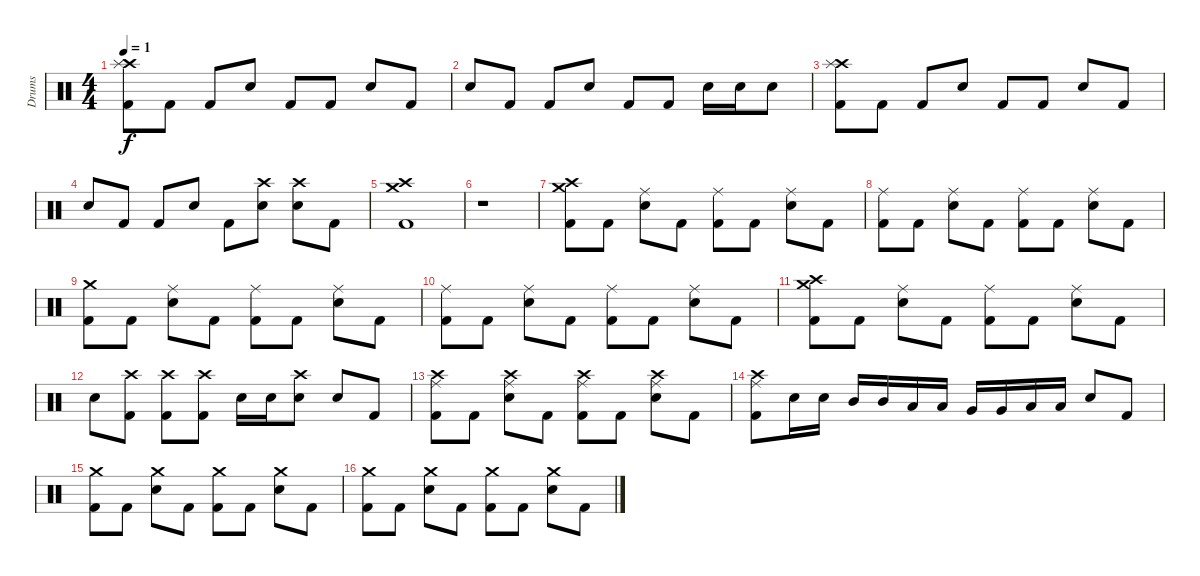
\track ("Drums" "Drums") {instrument percussion}
\staff {score}
\articulation defaults
\ts (4 4)
\tempo 1
\clef neutral
\ks c
("Crash high (hit)" "Splash (hit)" "Kick (hit) 2").8{dy f} "Kick (hit) 2".8 "Kick (hit) 2".8 "Snare (hit) 2".8 "Kick (hit) 2".8 "Kick (hit) 2".8 "Snare (hit) 2".8 "Kick (hit) 2".8 |
"Snare (hit) 2".8 "Kick (hit) 2".8 "Kick (hit) 2".8 "Snare (hit) 2".8 "Kick (hit) 2".8 "Kick (hit) 2".8 "Snare (hit) 2".16 "Snare (hit) 2".16 "Snare (hit) 2".8 |
("Crash high (hit)" "Splash (hit)" "Kick (hit) 2").8 "Kick (hit) 2".8 "Kick (hit) 2".8 "Snare (hit) 2".8 "Kick (hit) 2".8 "Kick (hit) 2".8 "Snare (hit) 2".8 "Kick (hit) 2".8 |
"Snare (hit) 2".8 "Kick (hit) 2".8 "Kick (hit) 2".8 "Snare (hit) 2".8 "Kick (hit) 2".8 ("Crash high (hit)" "Snare (hit) 2").8 ("Crash high (hit)" "Snare (hit) 2").8 "Kick (hit) 2".8 |
("Crash medium (hit)" "Crash high (hit)" "Kick (hit) 2").1 |
r.1 |
("Crash high (hit)" "Crash medium (hit)" "Kick (hit) 2").8 "Kick (hit) 2".8 ("Ride (middle)" "Snare (hit) 2").8 "Kick (hit) 2".8 ("Ride (middle)" "Kick (hit) 2").8 "Kick (hit) 2".8 ("Ride (middle)" "Snare (hit) 2").8 "Kick (hit) 2".8 |
("Ride (middle)" "Kick (hit) 2").8 "Kick (hit) 2".8 ("Ride (middle)" "Snare (hit) 2").8 "Kick (hit) 2".8 ("Ride (middle)" "Kick (hit) 2").8 "Kick (hit) 2".8 ("Ride (middle)" "Snare (hit) 2").8 "Kick (hit) 2".8 |
("Crash medium (hit)" "Kick (hit) 2").8 "Kick (hit) 2".8 ("Ride (middle)" "Snare (hit) 2").8 "Kick (hit) 2".8 ("Ride (middle)" "Kick (hit) 2").8 "Kick (hit) 2".8 ("Ride (middle)" "Snare (hit) 2").8 "Kick (hit) 2".8 |
("Ride (middle)" "Kick (hit) 2").8 "Kick (hit) 2".8 ("Ride (middle)" "Snare (hit) 2").8 "Kick (hit) 2".8 ("Ride (middle)" "Kick (hit) 2").8 "Kick (hit) 2".8 ("Ride (middle)" "Snare (hit) 2").8 "Kick (hit) 2".8 |
("Crash high (hit)" "Crash medium (hit)" "Kick (hit) 2").8 "Kick (hit) 2".8 ("Ride (middle)" "Snare (hit) 2").8 "Kick (hit) 2".8 ("Ride (middle)" "Kick (hit) 2").8 "Kick (hit) 2".8 ("Ride (middle)" "Snare (hit) 2").8 "Kick (hit) 2".8 |
"Snare (hit) 2".8 ("Crash high (hit)" "Kick (hit) 2").8 ("Crash high (hit)" "Kick (hit) 2").8 ("Crash high (hit)" "Kick (hit) 2").8 "Snare (hit) 2".16 "Snare (hit) 2".16 ("Crash high (hit)" "Snare (hit) 2").8 "Snare (hit) 2".8 "Kick (hit) 2".8 |
("Crash high (hit)" "Ride (middle)" "Kick (hit) 2").8 "Kick (hit) 2".8 ("Crash high (hit)" "Ride (middle)" "Snare (hit) 2").8 "Kick (hit) 2".8 ("Crash high (hit)" "Ride (middle)" "Kick (hit) 2").8 "Kick (hit) 2".8 ("Crash high (hit)" "Ride (middle)" "Snare (hit) 2").8 "Kick (hit) 2".8 |
("Crash high (hit)" "Ride (middle)" "Kick (hit) 2").8 "Snare (hit) 2".16 "Snare (hit) 2".16 "Mid Tom (hit)".16 "Mid Tom (hit)".16 "Low Tom (hit)".16 "Low Tom (hit)".16 "Very Low Tom (hit)".16 "Very Low Tom (hit)".16 "Low Floor Tom (hit)".16 "Low Floor Tom (hit)".16 "Snare (hit) 2".8 "Kick (hit) 2".8 |
("Crash medium (hit)" "Kick (hit) 2").8 "Kick (hit) 2".8 ("Crash medium (hit)" "Snare (hit) 2").8 "Kick (hit) 2".8 ("Crash medium (hit)" "Kick (hit) 2").8 "Kick (hit) 2".8 ("Crash medium (hit)" "Snare (hit) 2").8 "Kick (hit) 2".8 |
("Crash medium (hit)" "Kick (hit) 2").8 "Kick (hit) 2".8 ("Crash medium (hit)" "Snare (hit) 2").8 "Kick (hit) 2".8 ("Crash medium (hit)" "Kick (hit) 2").8 "Kick (hit) 2".8 ("Crash medium (hit)" "Snare (hit) 2").8 "Kick (hit) 2".8
